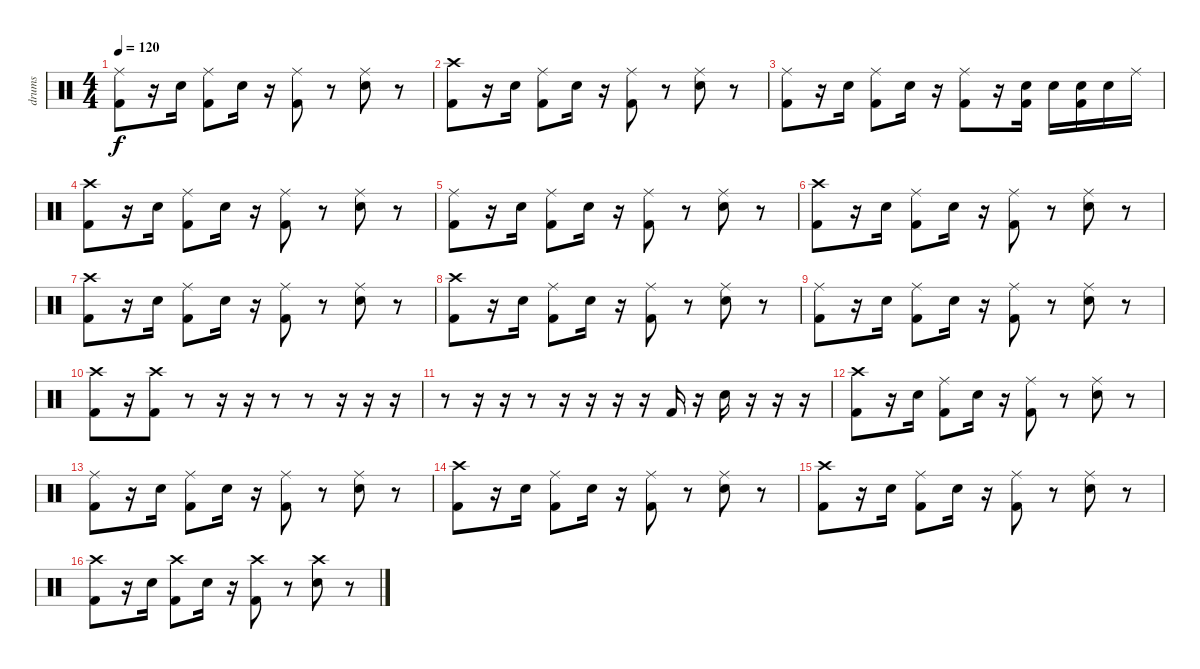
\track ("drums" "drums") {instrument percussion}
\staff {score}
\articulation defaults
\ts (4 4)
\tempo 120
\clef neutral
\ks c
("Ride (middle)" "Kick (hit) 2").8{dy f} r.16 "Snare (hit) 2".16 ("Ride (middle)" "Kick (hit) 2").8 "Snare (hit) 2".16 r.16 ("Ride (middle)" "Kick (hit) 2").8 r.8 ("Ride (middle)" "Snare (hit) 2").8 r.8 |
("Crash high (hit)" "Kick (hit) 2").8 r.16 "Snare (hit) 2".16 ("Ride (middle)" "Kick (hit) 2").8 "Snare (hit) 2".16 r.16 ("Ride (middle)" "Kick (hit) 2").8 r.8 ("Ride (middle)" "Snare (hit) 2").8 r.8 |
("Ride (middle)" "Kick (hit) 2").8 r.16 "Snare (hit) 2".16 ("Ride (middle)" "Kick (hit) 2").8 "Snare (hit) 2".16 r.16 ("Ride (middle)" "Kick (hit) 2").8 r.16 ("Snare (hit) 2" "Kick (hit) 2").16 "Snare (hit) 2".16 ("Snare (hit) 2" "Kick (hit) 2").16 "Snare (hit) 2".16 "Ride (middle)".16 |
("Crash high (hit)" "Kick (hit) 2").8 r.16 "Snare (hit) 2".16 ("Ride (middle)" "Kick (hit) 2").8 "Snare (hit) 2".16 r.16 ("Ride (middle)" "Kick (hit) 2").8 r.8 ("Ride (middle)" "Snare (hit) 2").8 r.8 |
("Ride (middle)" "Kick (hit) 2").8 r.16 "Snare (hit) 2".16 ("Ride (middle)" "Kick (hit) 2").8 "Snare (hit) 2".16 r.16 ("Ride (middle)" "Kick (hit) 2").8 r.8 ("Ride (middle)" "Snare (hit) 2").8 r.8 |
("Crash high (hit)" "Kick (hit) 2").8 r.16 "Snare (hit) 2".16 ("Ride (middle)" "Kick (hit) 2").8 "Snare (hit) 2".16 r.16 ("Ride (middle)" "Kick (hit) 2").8 r.8 ("Ride (middle)" "Snare (hit) 2").8 r.8 |
("Crash high (hit)" "Kick (hit) 2").8 r.16 "Snare (hit) 2".16 ("Ride (middle)" "Kick (hit) 2").8 "Snare (hit) 2".16 r.16 ("Ride (middle)" "Kick (hit) 2").8 r.8 ("Ride (middle)" "Snare (hit) 2").8 r.8 |
("Crash high (hit)" "Kick (hit) 2").8 r.16 "Snare (hit) 2".16 ("Ride (middle)" "Kick (hit) 2").8 "Snare (hit) 2".16 r.16 ("Ride (middle)" "Kick (hit) 2").8 r.8 ("Ride (middle)" "Snare (hit) 2").8 r.8 |
("Ride (middle)" "Kick (hit) 2").8 r.16 "Snare (hit) 2".16 ("Ride (middle)" "Kick (hit) 2").8 "Snare (hit) 2".16 r.16 ("Ride (middle)" "Kick (hit) 2").8 r.8 ("Ride (middle)" "Snare (hit) 2").8 r.8 |
("Crash high (hit)" "Kick (hit) 2").8 r.16 ("Crash high (hit)" "Kick (hit) 2").8 r.8 r.16 r.16 r.8 r.8 r.16 r.16 r.16 |
r.8 r.16 r.16 r.8 r.16 r.16 r.16 r.16 "Kick (hit) 2".16 r.16 "Electric Snare (hit)".16 r.16 r.16 r.16 |
("Crash high (hit)" "Kick (hit) 2").8 r.16 "Snare (hit) 2".16 ("Ride (middle)" "Kick (hit) 2").8 "Snare (hit) 2".16 r.16 ("Ride (middle)" "Kick (hit) 2").8 r.8 ("Ride (middle)" "Snare (hit) 2").8 r.8 |
("Ride (middle)" "Kick (hit) 2").8 r.16 "Snare (hit) 2".16 ("Ride (middle)" "Kick (hit) 2").8 "Snare (hit) 2".16 r.16 ("Ride (middle)" "Kick (hit) 2").8 r.8 ("Ride (middle)" "Snare (hit) 2").8 r.8 |
("Crash high (hit)" "Kick (hit) 2").8 r.16 "Snare (hit) 2".16 ("Ride (middle)" "Kick (hit) 2").8 "Snare (hit) 2".16 r.16 ("Ride (middle)" "Kick (hit) 2").8 r.8 ("Ride (middle)" "Snare (hit) 2").8 r.8 |
("Crash high (hit)" "Kick (hit) 2").8 r.16 "Snare (hit) 2".16 ("Ride (middle)" "Kick (hit) 2").8 "Snare (hit) 2".16 r.16 ("Ride (middle)" "Kick (hit) 2").8 r.8 ("Ride (middle)" "Snare (hit) 2").8 r.8 |
("Crash high (hit)" "Kick (hit) 2").8 r.16 "Snare (hit) 2".16 ("Crash high (hit)" "Kick (hit) 2").8 "Snare (hit) 2".16 r.16 ("Crash high (hit)" "Kick (hit) 2").8 r.8 ("Crash high (hit)" "Snare (hit) 2").8 r.8
